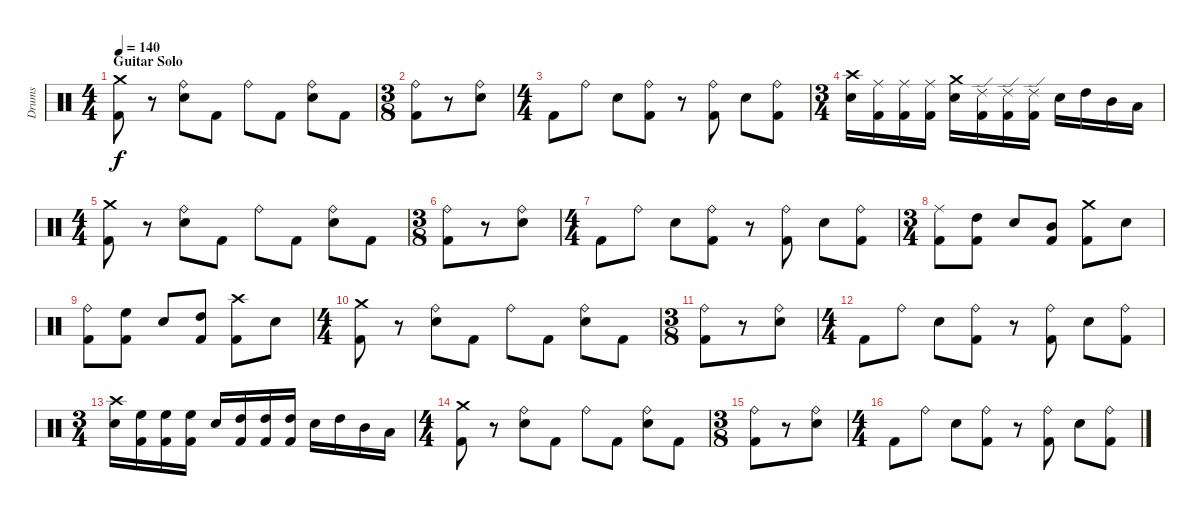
\track ("Drums" "Drums") {instrument percussion}
\staff {score}
\articulation defaults
\ts (4 4)
\section ("" "Guitar Solo")
\tempo 140
\clef neutral
\ks c
("Crash medium (hit)" "Kick (hit) 2").8{dy f} r.8 ("Ride (bell)" "Electric Snare (hit)").8 "Kick (hit) 2".8 "Ride (bell)".8 "Kick (hit) 2".8 ("Ride (bell)" "Electric Snare (hit)").8 "Kick (hit) 2".8 |
\ts (3 8)
("Ride (bell)" "Kick (hit) 2").8 r.8 ("Ride (bell)" "Electric Snare (hit)").8 |
\ts (4 4)
"Kick (hit) 2".8 "Ride (bell)".8 "Electric Snare (hit)".8 ("Ride (bell)" "Kick (hit) 2").8 r.8 ("Ride (bell)" "Kick (hit) 2").8 "Electric Snare (hit)".8 ("Ride (bell)" "Kick (hit) 2").8 |
\ts (3 4)
("Crash high (hit)" "Electric Snare (hit)").16 ("Ride (middle)" "Kick (hit) 2").16 ("Ride (middle)" "Kick (hit) 2").16 ("Ride (middle)" "Kick (hit) 2").16 ("Crash medium (hit)" "Electric Snare (hit)").16 ("Ride (edge) 2" "Kick (hit) 2").16 ("Ride (edge) 2" "Kick (hit) 2").16 ("Ride (edge) 2" "Kick (hit) 2").16 "Electric Snare (hit)".16 "High Tom (hit)".16 "Mid Tom (hit)".16 "Low Tom (hit)".16 |
\ts (4 4)
("Crash medium (hit)" "Kick (hit) 2").8 r.8 ("Ride (bell)" "Electric Snare (hit)").8 "Kick (hit) 2".8 "Ride (bell)".8 "Kick (hit) 2".8 ("Ride (bell)" "Electric Snare (hit)").8 "Kick (hit) 2".8 |
\ts (3 8)
("Ride (bell)" "Kick (hit) 2").8 r.8 ("Ride (bell)" "Electric Snare (hit)").8 |
\ts (4 4)
"Kick (hit) 2".8 "Ride (bell)".8 "Electric Snare (hit)".8 ("Ride (bell)" "Kick (hit) 2").8 r.8 ("Ride (bell)" "Kick (hit) 2").8 "Electric Snare (hit)".8 ("Ride (bell)" "Kick (hit) 2").8 |
\ts (3 4)
("Ride (middle)" "Kick (hit) 2").8 ("High Tom (hit)" "Kick (hit) 2").8 "Electric Snare (hit)".8 ("Mid Tom (hit)" "Kick (hit) 2").8 ("Crash medium (hit)" "Kick (hit) 2").8 "Electric Snare (hit)".8 |
("Ride (bell)" "Kick (hit) 2").8 ("High Floor Tom (hit)" "Kick (hit) 2").8 "Electric Snare (hit)".8 ("High Tom (hit)" "Kick (hit) 2").8 ("Crash high (hit)" "Kick (hit) 2").8 "Electric Snare (hit)".8 |
\ts (4 4)
("Crash medium (hit)" "Kick (hit) 2").8 r.8 ("Ride (bell)" "Electric Snare (hit)").8 "Kick (hit) 2".8 "Ride (bell)".8 "Kick (hit) 2".8 ("Ride (bell)" "Electric Snare (hit)").8 "Kick (hit) 2".8 |
\ts (3 8)
("Ride (bell)" "Kick (hit) 2").8 r.8 ("Ride (bell)" "Electric Snare (hit)").8 |
\ts (4 4)
"Kick (hit) 2".8 "Ride (bell)".8 "Electric Snare (hit)".8 ("Ride (bell)" "Kick (hit) 2").8 r.8 ("Ride (bell)" "Kick (hit) 2").8 "Electric Snare (hit)".8 ("Ride (bell)" "Kick (hit) 2").8 |
\ts (3 4)
("Crash high (hit)" "Electric Snare (hit)").16 ("High Floor Tom (hit)" "Kick (hit) 2").16 ("High Floor Tom (hit)" "Kick (hit) 2").16 ("High Floor Tom (hit)" "Kick (hit) 2").16 "Electric Snare (hit)".16 ("High Tom (hit)" "Kick (hit) 2").16 ("High Tom (hit)" "Kick (hit) 2").16 ("High Tom (hit)" "Kick (hit) 2").16 "Electric Snare (hit)".16 "High Tom (hit)".16 "Mid Tom (hit)".16 "Low Tom (hit)".16 |
\ts (4 4)
("Crash medium (hit)" "Kick (hit) 2").8 r.8 ("Ride (bell)" "Electric Snare (hit)").8 "Kick (hit) 2".8 "Ride (bell)".8 "Kick (hit) 2".8 ("Ride (bell)" "Electric Snare (hit)").8 "Kick (hit) 2".8 |
\ts (3 8)
("Ride (bell)" "Kick (hit) 2").8 r.8 ("Ride (bell)" "Electric Snare (hit)").8 |
\ts (4 4)
"Kick (hit) 2".8 "Ride (bell)".8 "Electric Snare (hit)".8 ("Ride (bell)" "Kick (hit) 2").8 r.8 ("Ride (bell)" "Kick (hit) 2").8 "Electric Snare (hit)".8 ("Ride (bell)" "Kick (hit) 2").8
